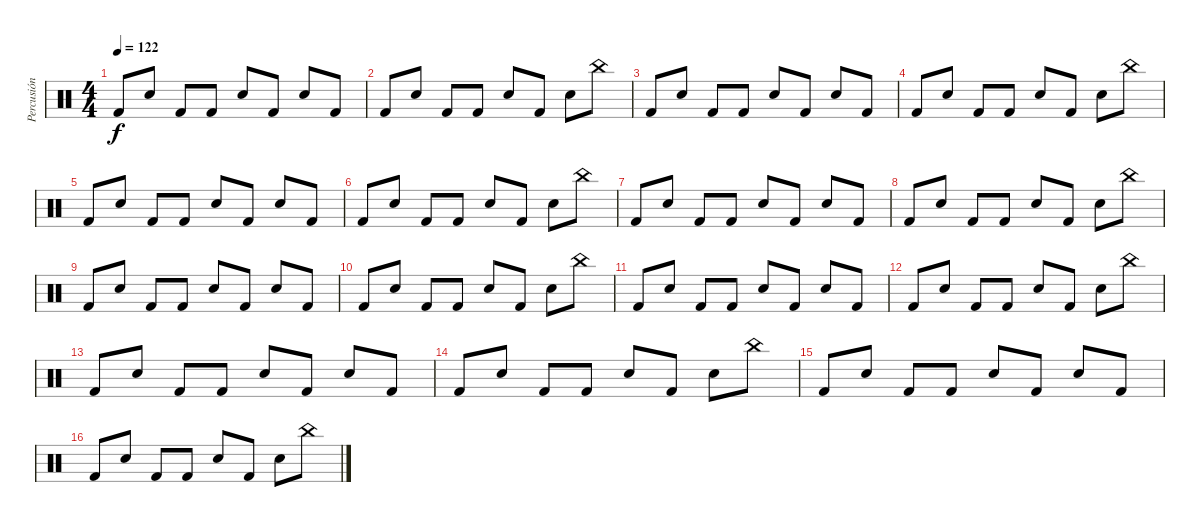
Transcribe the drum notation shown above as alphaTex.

\track ("Percusión" "Percusión") {instrument percussion}
\staff {score}
\articulation defaults
\ts (4 4)
\tempo 122
\clef neutral
\ks c "Kick (hit) 2".8{dy f} "Electric Snare (hit)".8 "Kick (hit) 2".8 "Kick (hit) 2".8 "Electric Snare (hit)".8 "Kick (hit) 2".8 "Electric Snare (hit)".8 "Kick (hit) 2".8
|
"Kick (hit) 2".8 "Electric Snare (hit)".8 "Kick (hit) 2".8 "Kick (hit) 2".8 "Electric Snare (hit)".8 "Kick (hit) 2".8 "Electric Snare (hit)".8 "China (hit)".8 |
"Kick (hit) 2".8 "Electric Snare (hit)".8 "Kick (hit) 2".8 "Kick (hit) 2".8 "Electric Snare (hit)".8 "Kick (hit) 2".8 "Electric Snare (hit)".8 "Kick (hit) 2".8 |
"Kick (hit) 2".8 "Electric Snare (hit)".8 "Kick (hit) 2".8 "Kick (hit) 2".8 "Electric Snare (hit)".8 "Kick (hit) 2".8 "Electric Snare (hit)".8 "China (hit)".8 |
"Kick (hit) 2".8 "Electric Snare (hit)".8 "Kick (hit) 2".8 "Kick (hit) 2".8 "Electric Snare (hit)".8 "Kick (hit) 2".8 "Electric Snare (hit)".8 "Kick (hit) 2".8 |
"Kick (hit) 2".8 "Electric Snare (hit)".8 "Kick (hit) 2".8 "Kick (hit) 2".8 "Electric Snare (hit)".8 "Kick (hit) 2".8 "Electric Snare (hit)".8 "China (hit)".8 |
"Kick (hit) 2".8 "Electric Snare (hit)".8 "Kick (hit) 2".8 "Kick (hit) 2".8 "Electric Snare (hit)".8 "Kick (hit) 2".8 "Electric Snare (hit)".8 "Kick (hit) 2".8 |
"Kick (hit) 2".8 "Electric Snare (hit)".8 "Kick (hit) 2".8 "Kick (hit) 2".8 "Electric Snare (hit)".8 "Kick (hit) 2".8 "Electric Snare (hit)".8 "China (hit)".8 |
"Kick (hit) 2".8 "Electric Snare (hit)".8 "Kick (hit) 2".8 "Kick (hit) 2".8 "Electric Snare (hit)".8 "Kick (hit) 2".8 "Electric Snare (hit)".8 "Kick (hit) 2".8 |
"Kick (hit) 2".8 "Electric Snare (hit)".8 "Kick (hit) 2".8 "Kick (hit) 2".8 "Electric Snare (hit)".8 "Kick (hit) 2".8 "Electric Snare (hit)".8 "China (hit)".8 |
"Kick (hit) 2".8 "Electric Snare (hit)".8 "Kick (hit) 2".8 "Kick (hit) 2".8 "Electric Snare (hit)".8 "Kick (hit) 2".8 "Electric Snare (hit)".8 "Kick (hit) 2".8 |
"Kick (hit) 2".8 "Electric Snare (hit)".8 "Kick (hit) 2".8 "Kick (hit) 2".8 "Electric Snare (hit)".8 "Kick (hit) 2".8 "Electric Snare (hit)".8 "China (hit)".8 |
"Kick (hit) 2".8 "Electric Snare (hit)".8 "Kick (hit) 2".8 "Kick (hit) 2".8 "Electric Snare (hit)".8 "Kick (hit) 2".8 "Electric Snare (hit)".8 "Kick (hit) 2".8 |
"Kick (hit) 2".8 "Electric Snare (hit)".8 "Kick (hit) 2".8 "Kick (hit) 2".8 "Electric Snare (hit)".8 "Kick (hit) 2".8 "Electric Snare (hit)".8 "China (hit)".8 |
"Kick (hit) 2".8 "Electric Snare (hit)".8 "Kick (hit) 2".8 "Kick (hit) 2".8 "Electric Snare (hit)".8 "Kick (hit) 2".8 "Electric Snare (hit)".8 "Kick (hit) 2".8 |
"Kick (hit) 2".8 "Electric Snare (hit)".8 "Kick (hit) 2".8 "Kick (hit) 2".8 "Electric Snare (hit)".8 "Kick (hit) 2".8 "Electric Snare (hit)".8 "China (hit)".8
